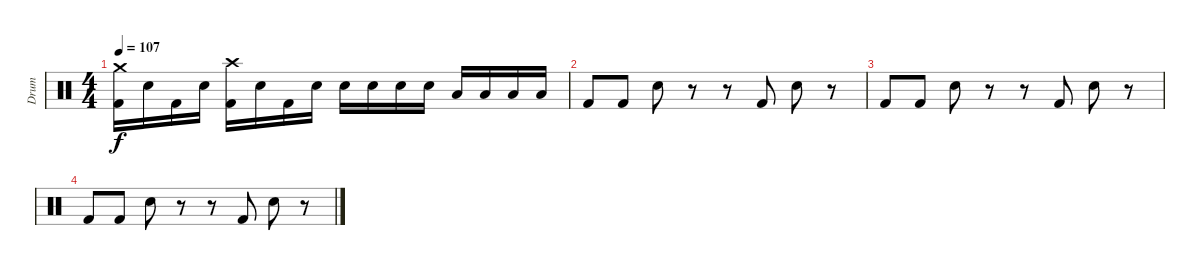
\track ("Drum" "Drum") {instrument percussion}
\staff {score}
\articulation defaults
\ts (4 4)
\tempo 107
\clef neutral
\ks c
("Crash medium (hit)" "Kick (hit) 2").16{dy f} "Snare (hit) 2".16 "Kick (hit) 2".16 "Snare (hit) 2".16 ("Crash high (hit)" "Kick (hit) 2").16 "Snare (hit) 2".16 "Kick (hit) 2".16 "Snare (hit) 2".16 "Snare (hit) 2".16 "Snare (hit) 2".16 "Snare (hit) 2".16 "Snare (hit) 2".16 "Low Floor Tom (hit)".16 "Low Floor Tom (hit)".16 "Low Floor Tom (hit)".16 "Low Floor Tom (hit)".16 |
"Kick (hit) 2".8 "Kick (hit) 2".8 "Snare (hit) 2".8 r.8 r.8 "Kick (hit) 2".8 "Snare (hit) 2".8 r.8 |
"Kick (hit) 2".8 "Kick (hit) 2".8 "Snare (hit) 2".8 r.8 r.8 "Kick (hit) 2".8 "Snare (hit) 2".8 r.8 |
"Kick (hit) 2".8 "Kick (hit) 2".8 "Snare (hit) 2".8 r.8 r.8 "Kick (hit) 2".8 "Snare (hit) 2".8 r.8
